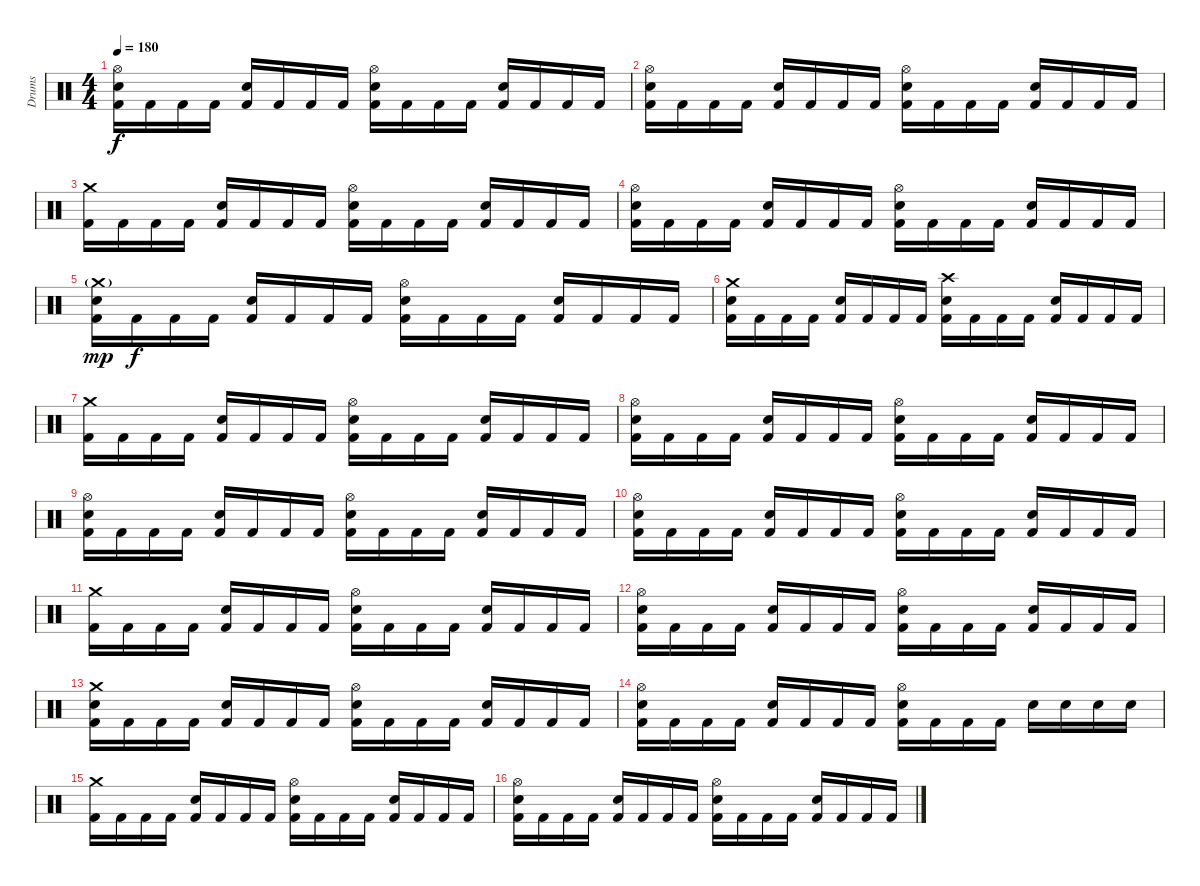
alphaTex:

\track ("Drums" "Drums") {instrument percussion}
\staff {score}
\articulation defaults
\ts (4 4)
\tempo 180
\clef neutral
\ks c
("Hi-Hat (open)" "Electric Snare (hit)" "Kick (hit) 2").16{dy f} "Kick (hit) 2".16 "Kick (hit) 2".16 "Kick (hit) 2".16 ("Electric Snare (hit)" "Kick (hit) 2").16 "Kick (hit) 2".16 "Kick (hit) 2".16 "Kick (hit) 2".16 ("Hi-Hat (open)" "Electric Snare (hit)" "Kick (hit) 2").16 "Kick (hit) 2".16 "Kick (hit) 2".16 "Kick (hit) 2".16 ("Electric Snare (hit)" "Kick (hit) 2").16 "Kick (hit) 2".16 "Kick (hit) 2".16 "Kick (hit) 2".16 |
("Hi-Hat (open)" "Electric Snare (hit)" "Kick (hit) 2").16 "Kick (hit) 2".16 "Kick (hit) 2".16 "Kick (hit) 2".16 ("Electric Snare (hit)" "Kick (hit) 2").16 "Kick (hit) 2".16 "Kick (hit) 2".16 "Kick (hit) 2".16 ("Hi-Hat (open)" "Electric Snare (hit)" "Kick (hit) 2").16 "Kick (hit) 2".16 "Kick (hit) 2".16 "Kick (hit) 2".16 ("Electric Snare (hit)" "Kick (hit) 2").16 "Kick (hit) 2".16 "Kick (hit) 2".16 "Kick (hit) 2".16 |
("Crash medium (hit)" "Kick (hit) 2").16 "Kick (hit) 2".16 "Kick (hit) 2".16 "Kick (hit) 2".16 ("Electric Snare (hit)" "Kick (hit) 2").16 "Kick (hit) 2".16 "Kick (hit) 2".16 "Kick (hit) 2".16 ("Hi-Hat (open)" "Electric Snare (hit)" "Kick (hit) 2").16 "Kick (hit) 2".16 "Kick (hit) 2".16 "Kick (hit) 2".16 ("Electric Snare (hit)" "Kick (hit) 2").16 "Kick (hit) 2".16 "Kick (hit) 2".16 "Kick (hit) 2".16 |
("Hi-Hat (open)" "Electric Snare (hit)" "Kick (hit) 2").16 "Kick (hit) 2".16 "Kick (hit) 2".16 "Kick (hit) 2".16 ("Electric Snare (hit)" "Kick (hit) 2").16 "Kick (hit) 2".16 "Kick (hit) 2".16 "Kick (hit) 2".16 ("Hi-Hat (open)" "Electric Snare (hit)" "Kick (hit) 2").16 "Kick (hit) 2".16 "Kick (hit) 2".16 "Kick (hit) 2".16 ("Electric Snare (hit)" "Kick (hit) 2").16 "Kick (hit) 2".16 "Kick (hit) 2".16 "Kick (hit) 2".16 |
("Crash medium (hit)"{g} "Electric Snare (hit)" "Kick (hit) 2").16{dy mp} "Kick (hit) 2".16{dy f} "Kick (hit) 2".16 "Kick (hit) 2".16 ("Electric Snare (hit)" "Kick (hit) 2").16 "Kick (hit) 2".16 "Kick (hit) 2".16 "Kick (hit) 2".16 ("Hi-Hat (open)" "Electric Snare (hit)" "Kick (hit) 2").16 "Kick (hit) 2".16 "Kick (hit) 2".16 "Kick (hit) 2".16 ("Electric Snare (hit)" "Kick (hit) 2").16 "Kick (hit) 2".16 "Kick (hit) 2".16 "Kick (hit) 2".16 |
("Crash medium (hit)" "Electric Snare (hit)" "Kick (hit) 2").16 "Kick (hit) 2".16 "Kick (hit) 2".16 "Kick (hit) 2".16 ("Electric Snare (hit)" "Kick (hit) 2").16 "Kick (hit) 2".16 "Kick (hit) 2".16 "Kick (hit) 2".16 ("Crash high (hit)" "Electric Snare (hit)" "Kick (hit) 2").16 "Kick (hit) 2".16 "Kick (hit) 2".16 "Kick (hit) 2".16 ("Electric Snare (hit)" "Kick (hit) 2").16 "Kick (hit) 2".16 "Kick (hit) 2".16 "Kick (hit) 2".16 |
("Crash medium (hit)" "Kick (hit) 2").16 "Kick (hit) 2".16 "Kick (hit) 2".16 "Kick (hit) 2".16 ("Electric Snare (hit)" "Kick (hit) 2").16 "Kick (hit) 2".16 "Kick (hit) 2".16 "Kick (hit) 2".16 ("Hi-Hat (open)" "Electric Snare (hit)" "Kick (hit) 2").16 "Kick (hit) 2".16 "Kick (hit) 2".16 "Kick (hit) 2".16 ("Electric Snare (hit)" "Kick (hit) 2").16 "Kick (hit) 2".16 "Kick (hit) 2".16 "Kick (hit) 2".16 |
("Hi-Hat (open)" "Electric Snare (hit)" "Kick (hit) 2").16 "Kick (hit) 2".16 "Kick (hit) 2".16 "Kick (hit) 2".16 ("Electric Snare (hit)" "Kick (hit) 2").16 "Kick (hit) 2".16 "Kick (hit) 2".16 "Kick (hit) 2".16 ("Hi-Hat (open)" "Electric Snare (hit)" "Kick (hit) 2").16 "Kick (hit) 2".16 "Kick (hit) 2".16 "Kick (hit) 2".16 ("Electric Snare (hit)" "Kick (hit) 2").16 "Kick (hit) 2".16 "Kick (hit) 2".16 "Kick (hit) 2".16 |
("Hi-Hat (open)" "Electric Snare (hit)" "Kick (hit) 2").16 "Kick (hit) 2".16 "Kick (hit) 2".16 "Kick (hit) 2".16 ("Electric Snare (hit)" "Kick (hit) 2").16 "Kick (hit) 2".16 "Kick (hit) 2".16 "Kick (hit) 2".16 ("Hi-Hat (open)" "Electric Snare (hit)" "Kick (hit) 2").16 "Kick (hit) 2".16 "Kick (hit) 2".16 "Kick (hit) 2".16 ("Electric Snare (hit)" "Kick (hit) 2").16 "Kick (hit) 2".16 "Kick (hit) 2".16 "Kick (hit) 2".16 |
("Hi-Hat (open)" "Electric Snare (hit)" "Kick (hit) 2").16 "Kick (hit) 2".16 "Kick (hit) 2".16 "Kick (hit) 2".16 ("Electric Snare (hit)" "Kick (hit) 2").16 "Kick (hit) 2".16 "Kick (hit) 2".16 "Kick (hit) 2".16 ("Hi-Hat (open)" "Electric Snare (hit)" "Kick (hit) 2").16 "Kick (hit) 2".16 "Kick (hit) 2".16 "Kick (hit) 2".16 ("Electric Snare (hit)" "Kick (hit) 2").16 "Kick (hit) 2".16 "Kick (hit) 2".16 "Kick (hit) 2".16 |
("Crash medium (hit)" "Kick (hit) 2").16 "Kick (hit) 2".16 "Kick (hit) 2".16 "Kick (hit) 2".16 ("Electric Snare (hit)" "Kick (hit) 2").16 "Kick (hit) 2".16 "Kick (hit) 2".16 "Kick (hit) 2".16 ("Hi-Hat (open)" "Electric Snare (hit)" "Kick (hit) 2").16 "Kick (hit) 2".16 "Kick (hit) 2".16 "Kick (hit) 2".16 ("Electric Snare (hit)" "Kick (hit) 2").16 "Kick (hit) 2".16 "Kick (hit) 2".16 "Kick (hit) 2".16 |
("Hi-Hat (open)" "Electric Snare (hit)" "Kick (hit) 2").16 "Kick (hit) 2".16 "Kick (hit) 2".16 "Kick (hit) 2".16 ("Electric Snare (hit)" "Kick (hit) 2").16 "Kick (hit) 2".16 "Kick (hit) 2".16 "Kick (hit) 2".16 ("Hi-Hat (open)" "Electric Snare (hit)" "Kick (hit) 2").16 "Kick (hit) 2".16 "Kick (hit) 2".16 "Kick (hit) 2".16 ("Electric Snare (hit)" "Kick (hit) 2").16 "Kick (hit) 2".16 "Kick (hit) 2".16 "Kick (hit) 2".16 |
("Crash medium (hit)" "Electric Snare (hit)" "Kick (hit) 2").16 "Kick (hit) 2".16 "Kick (hit) 2".16 "Kick (hit) 2".16 ("Electric Snare (hit)" "Kick (hit) 2").16 "Kick (hit) 2".16 "Kick (hit) 2".16 "Kick (hit) 2".16 ("Hi-Hat (open)" "Electric Snare (hit)" "Kick (hit) 2").16 "Kick (hit) 2".16 "Kick (hit) 2".16 "Kick (hit) 2".16 ("Electric Snare (hit)" "Kick (hit) 2").16 "Kick (hit) 2".16 "Kick (hit) 2".16 "Kick (hit) 2".16 |
("Hi-Hat (open)" "Electric Snare (hit)" "Kick (hit) 2").16 "Kick (hit) 2".16 "Kick (hit) 2".16 "Kick (hit) 2".16 ("Electric Snare (hit)" "Kick (hit) 2").16 "Kick (hit) 2".16 "Kick (hit) 2".16 "Kick (hit) 2".16 ("Hi-Hat (open)" "Electric Snare (hit)" "Kick (hit) 2").16 "Kick (hit) 2".16 "Kick (hit) 2".16 "Kick (hit) 2".16 "Electric Snare (hit)".16 "Electric Snare (hit)".16 "Electric Snare (hit)".16 "Electric Snare (hit)".16 |
("Crash medium (hit)" "Kick (hit) 2").16 "Kick (hit) 2".16 "Kick (hit) 2".16 "Kick (hit) 2".16 ("Electric Snare (hit)" "Kick (hit) 2").16 "Kick (hit) 2".16 "Kick (hit) 2".16 "Kick (hit) 2".16 ("Hi-Hat (open)" "Electric Snare (hit)" "Kick (hit) 2").16 "Kick (hit) 2".16 "Kick (hit) 2".16 "Kick (hit) 2".16 ("Electric Snare (hit)" "Kick (hit) 2").16 "Kick (hit) 2".16 "Kick (hit) 2".16 "Kick (hit) 2".16 |
("Hi-Hat (open)" "Electric Snare (hit)" "Kick (hit) 2").16 "Kick (hit) 2".16 "Kick (hit) 2".16 "Kick (hit) 2".16 ("Electric Snare (hit)" "Kick (hit) 2").16 "Kick (hit) 2".16 "Kick (hit) 2".16 "Kick (hit) 2".16 ("Hi-Hat (open)" "Electric Snare (hit)" "Kick (hit) 2").16 "Kick (hit) 2".16 "Kick (hit) 2".16 "Kick (hit) 2".16 ("Electric Snare (hit)" "Kick (hit) 2").16 "Kick (hit) 2".16 "Kick (hit) 2".16 "Kick (hit) 2".16
